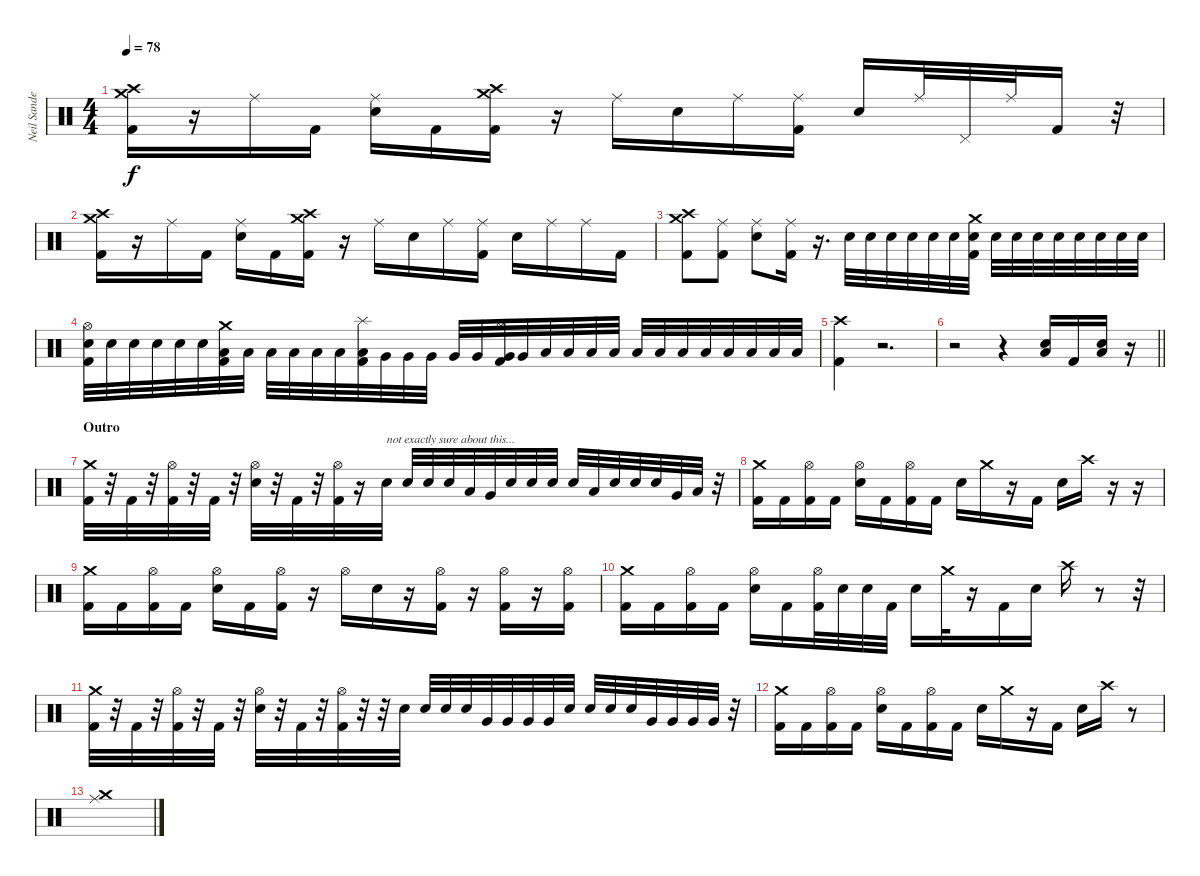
\track ("Neil Sanderson (Percussion)" "Neil Sande") {instrument percussion}
\staff {score}
\articulation defaults
\ts (4 4)
\tempo 78
\clef neutral
\ks c
("Crash medium (hit)" "Crash high (hit)" "Kick (hit) 2").16{dy f} r.16 "Ride (middle)".16 "Kick (hit) 2".16 ("Ride (middle)" "Electric Snare (hit)").16 "Kick (hit) 2".16 ("Crash medium (hit)" "Crash high (hit)" "Kick (hit) 2").16 r.16 "Ride (middle)".16 "Electric Snare (hit)".16 "Ride (middle)".16 ("Ride (middle)" "Kick (hit) 2").16 "Electric Snare (hit)".16 "Ride (middle)".32 "Pedal Hi-Hat (hit)".32 "Ride (middle)".32 "Kick (hit) 2".16 r.32 |
("Crash medium (hit)" "Crash high (hit)" "Kick (hit) 2").16 r.16 "Ride (middle)".16 "Kick (hit) 2".16 ("Ride (middle)" "Electric Snare (hit)").16 "Kick (hit) 2".16 ("Crash medium (hit)" "Crash high (hit)" "Kick (hit) 2").16 r.16 "Ride (middle)".16 "Electric Snare (hit)".16 "Ride (middle)".16 ("Ride (middle)" "Kick (hit) 2").16 "Electric Snare (hit)".16 "Ride (middle)".16 "Ride (middle)".16 "Kick (hit) 2".16 |
("Crash medium (hit)" "Crash high (hit)" "Kick (hit) 2").8 ("Ride (middle)" "Kick (hit) 2").8 ("Ride (middle)" "Electric Snare (hit)").8 ("Ride (middle)" "Kick (hit) 2").16 r.16{d} "Electric Snare (hit)".32 "Electric Snare (hit)".32 "Electric Snare (hit)".32 "Electric Snare (hit)".32 "Electric Snare (hit)".32 "Electric Snare (hit)".32 ("Crash medium (hit)" "Electric Snare (hit)" "Kick (hit) 2").32 "Electric Snare (hit)".32 "Electric Snare (hit)".32 "Electric Snare (hit)".32 "Electric Snare (hit)".32 "Electric Snare (hit)".32 "Electric Snare (hit)".32 "Electric Snare (hit)".32 "Electric Snare (hit)".32 |
("Hi-Hat (open)" "Electric Snare (hit)" "Kick (hit) 2").32 "Electric Snare (hit)".32 "Electric Snare (hit)".32 "Electric Snare (hit)".32 "Electric Snare (hit)".32 "Electric Snare (hit)".32 ("Crash medium (hit)" "Low Tom (hit)" "Kick (hit) 2").32 "Low Tom (hit)".32 "Low Tom (hit)".32 "Low Tom (hit)".32 "Low Tom (hit)".32 "Low Tom (hit)".32 ("Splash (hit)" "Low Tom (hit)" "Kick (hit) 2").32 "Very Low Tom (hit)".32 "Very Low Tom (hit)".32 "Very Low Tom (hit)".32 "Very Low Tom (hit)".32 "Very Low Tom (hit)".32 ("Hi-Hat (open)" "Very Low Tom (hit)" "Kick (hit) 2").32 "Very Low Tom (hit)".32 "Low Floor Tom (hit)".32 "Low Floor Tom (hit)".32 "Low Floor Tom (hit)".32 "Low Floor Tom (hit)".32 "Low Floor Tom (hit)".32 "Low Floor Tom (hit)".32 "Low Floor Tom (hit)".32 "Low Floor Tom (hit)".32 "Low Floor Tom (hit)".32 "Low Floor Tom (hit)".32 "Low Floor Tom (hit)".32 "Low Floor Tom (hit)".32 |
("Crash high (hit)" "Kick (hit) 2").4 r.2{d} |
\barLineRight lightlight
r.2 r.4 ("Low Floor Tom (hit)" "Electric Snare (hit)").16 "Kick (hit) 2".16 ("Low Floor Tom (hit)" "Electric Snare (hit)").16 r.16 |
\section ("" "Outro")
("Crash medium (hit)" "Kick (hit) 2").32 r.32 "Kick (hit) 2".32 r.32 ("Hi-Hat (open)" "Kick (hit) 2").32 r.32 "Kick (hit) 2".32 r.32 ("Hi-Hat (open)" "Electric Snare (hit)").32 r.32 "Kick (hit) 2".32 r.32 ("Hi-Hat (open)" "Kick (hit) 2").32 r.16 "Electric Snare (hit)".32{txt "not exactly sure about this..."} "Electric Snare (hit)".32 "Electric Snare (hit)".32 "Electric Snare (hit)".32 "Low Tom (hit)".32 "Very Low Tom (hit)".32 "Electric Snare (hit)".32 "Electric Snare (hit)".32 "Electric Snare (hit)".32 "Electric Snare (hit)".32 "Low Floor Tom (hit)".32 "Electric Snare (hit)".32 "Electric Snare (hit)".32 "Electric Snare (hit)".32 "Very Low Tom (hit)".32 "Low Floor Tom (hit)".32 r.32 |
("Crash medium (hit)" "Kick (hit) 2").16 "Kick (hit) 2".16 ("Hi-Hat (open)" "Kick (hit) 2").16 "Kick (hit) 2".16 ("Hi-Hat (open)" "Electric Snare (hit)").16 "Kick (hit) 2".16 ("Hi-Hat (open)" "Kick (hit) 2").16 "Kick (hit) 2".16 "Electric Snare (hit)".16 "Crash medium (hit)".16 r.16 "Kick (hit) 2".16 "Electric Snare (hit)".16 "Crash high (hit)".16 r.16 r.16 |
("Crash medium (hit)" "Kick (hit) 2").16 "Kick (hit) 2".16 ("Hi-Hat (open)" "Kick (hit) 2").16 "Kick (hit) 2".16 ("Hi-Hat (open)" "Electric Snare (hit)").16 "Kick (hit) 2".16 ("Hi-Hat (open)" "Kick (hit) 2").16 r.16 "Hi-Hat (open)".16 "Electric Snare (hit)".16 r.16 ("Hi-Hat (open)" "Kick (hit) 2").16 r.16 ("Hi-Hat (open)" "Kick (hit) 2").16 r.16 ("Hi-Hat (open)" "Kick (hit) 2").16 |
("Crash medium (hit)" "Kick (hit) 2").16 "Kick (hit) 2".16 ("Hi-Hat (open)" "Kick (hit) 2").16 "Kick (hit) 2".16 ("Hi-Hat (open)" "Electric Snare (hit)").16 "Kick (hit) 2".16 ("Hi-Hat (open)" "Kick (hit) 2").32 "Electric Snare (hit)".32 "Electric Snare (hit)".32 "Kick (hit) 2".32 "Electric Snare (hit)".16 "Crash medium (hit)".32 r.16 "Kick (hit) 2".16 "Electric Snare (hit)".16 "Crash high (hit)".16 r.8 r.32 |
("Crash medium (hit)" "Kick (hit) 2").32 r.32 "Kick (hit) 2".32 r.32 ("Hi-Hat (open)" "Kick (hit) 2").32 r.32 "Kick (hit) 2".32 r.32 ("Hi-Hat (open)" "Electric Snare (hit)").32 r.32 "Kick (hit) 2".32 r.32 ("Hi-Hat (open)" "Kick (hit) 2").32 r.32 r.32 "Electric Snare (hit)".32 "Electric Snare (hit)".32 "Electric Snare (hit)".32 "Electric Snare (hit)".32 "Very Low Tom (hit)".32 "Very Low Tom (hit)".32 "Very Low Tom (hit)".32 "Very Low Tom (hit)".32 "Electric Snare (hit)".32 "Electric Snare (hit)".32 "Electric Snare (hit)".32 "Electric Snare (hit)".32 "Very Low Tom (hit)".32 "Very Low Tom (hit)".32 "Very Low Tom (hit)".32 "Very Low Tom (hit)".32 r.32 |
("Crash medium (hit)" "Kick (hit) 2").16 "Kick (hit) 2".16 ("Hi-Hat (open)" "Kick (hit) 2").16 "Kick (hit) 2".16 ("Hi-Hat (open)" "Electric Snare (hit)").16 "Kick (hit) 2".16 ("Hi-Hat (open)" "Kick (hit) 2").16 "Kick (hit) 2".16 "Electric Snare (hit)".16 "Crash medium (hit)".16 r.16 "Kick (hit) 2".16 "Electric Snare (hit)".16 "Crash high (hit)".16 r.8 |
("Crash medium (hit)" "Ride (middle)").1
